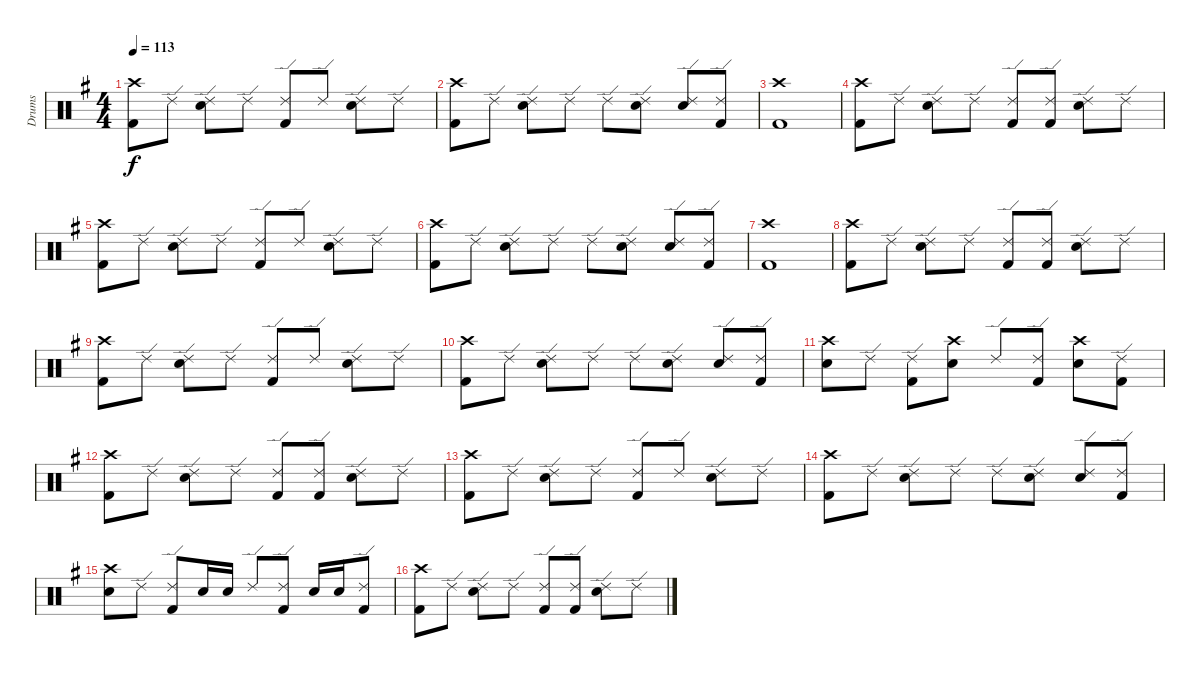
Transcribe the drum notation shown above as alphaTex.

\track ("Drums" "Drums") {instrument percussion}
\staff {score}
\articulation defaults
\ts (4 4)
\tempo 113
\clef neutral
\ks g
("Crash high (hit)" "Kick (hit) 2").8{dy f} "Ride (edge) 2".8 ("Ride (edge) 2" "Electric Snare (hit)").8 "Ride (edge) 2".8 ("Ride (edge) 2" "Kick (hit) 2").8 "Ride (edge) 2".8 ("Ride (edge) 2" "Electric Snare (hit)").8 "Ride (edge) 2".8 |
("Crash high (hit)" "Kick (hit) 2").8 "Ride (edge) 2".8 ("Ride (edge) 2" "Electric Snare (hit)").8 "Ride (edge) 2".8 "Ride (edge) 2".8 ("Ride (edge) 2" "Electric Snare (hit)").8 ("Ride (edge) 2" "Electric Snare (hit)").8 ("Ride (edge) 2" "Kick (hit) 2").8 |
("Crash high (hit)" "Kick (hit) 2").1 |
("Crash high (hit)" "Kick (hit) 2").8 "Ride (edge) 2".8 ("Ride (edge) 2" "Electric Snare (hit)").8 "Ride (edge) 2".8 ("Ride (edge) 2" "Kick (hit) 2").8 ("Ride (edge) 2" "Kick (hit) 2").8 ("Ride (edge) 2" "Electric Snare (hit)").8 "Ride (edge) 2".8 |
("Crash high (hit)" "Kick (hit) 2").8 "Ride (edge) 2".8 ("Ride (edge) 2" "Electric Snare (hit)").8 "Ride (edge) 2".8 ("Ride (edge) 2" "Kick (hit) 2").8 "Ride (edge) 2".8 ("Ride (edge) 2" "Electric Snare (hit)").8 "Ride (edge) 2".8 |
("Crash high (hit)" "Kick (hit) 2").8 "Ride (edge) 2".8 ("Ride (edge) 2" "Electric Snare (hit)").8 "Ride (edge) 2".8 "Ride (edge) 2".8 ("Ride (edge) 2" "Electric Snare (hit)").8 ("Ride (edge) 2" "Electric Snare (hit)").8 ("Ride (edge) 2" "Kick (hit) 2").8 |
("Crash high (hit)" "Kick (hit) 2").1 |
("Crash high (hit)" "Kick (hit) 2").8 "Ride (edge) 2".8 ("Ride (edge) 2" "Electric Snare (hit)").8 "Ride (edge) 2".8 ("Ride (edge) 2" "Kick (hit) 2").8 ("Ride (edge) 2" "Kick (hit) 2").8 ("Ride (edge) 2" "Electric Snare (hit)").8 "Ride (edge) 2".8 |
("Crash high (hit)" "Kick (hit) 2").8 "Ride (edge) 2".8 ("Ride (edge) 2" "Electric Snare (hit)").8 "Ride (edge) 2".8 ("Ride (edge) 2" "Kick (hit) 2").8 "Ride (edge) 2".8 ("Ride (edge) 2" "Electric Snare (hit)").8 "Ride (edge) 2".8 |
("Crash high (hit)" "Kick (hit) 2").8 "Ride (edge) 2".8 ("Ride (edge) 2" "Electric Snare (hit)").8 "Ride (edge) 2".8 "Ride (edge) 2".8 ("Ride (edge) 2" "Electric Snare (hit)").8 ("Ride (edge) 2" "Electric Snare (hit)").8 ("Ride (edge) 2" "Kick (hit) 2").8 |
("Crash high (hit)" "Electric Snare (hit)").8 "Ride (edge) 2".8 ("Ride (edge) 2" "Kick (hit) 2").8 ("Crash high (hit)" "Electric Snare (hit)").8 "Ride (edge) 2".8 ("Ride (edge) 2" "Kick (hit) 2").8 ("Crash high (hit)" "Electric Snare (hit)").8 ("Ride (edge) 2" "Kick (hit) 2").8 |
("Crash high (hit)" "Kick (hit) 2").8 "Ride (edge) 2".8 ("Ride (edge) 2" "Electric Snare (hit)").8 "Ride (edge) 2".8 ("Ride (edge) 2" "Kick (hit) 2").8 ("Ride (edge) 2" "Kick (hit) 2").8 ("Ride (edge) 2" "Electric Snare (hit)").8 "Ride (edge) 2".8 |
("Crash high (hit)" "Kick (hit) 2").8 "Ride (edge) 2".8 ("Ride (edge) 2" "Electric Snare (hit)").8 "Ride (edge) 2".8 ("Ride (edge) 2" "Kick (hit) 2").8 "Ride (edge) 2".8 ("Ride (edge) 2" "Electric Snare (hit)").8 "Ride (edge) 2".8 |
("Crash high (hit)" "Kick (hit) 2").8 "Ride (edge) 2".8 ("Ride (edge) 2" "Electric Snare (hit)").8 "Ride (edge) 2".8 "Ride (edge) 2".8 ("Ride (edge) 2" "Electric Snare (hit)").8 ("Ride (edge) 2" "Electric Snare (hit)").8 ("Ride (edge) 2" "Kick (hit) 2").8 |
("Crash high (hit)" "Electric Snare (hit)").8 "Ride (edge) 2".8 ("Ride (edge) 2" "Kick (hit) 2").8 "Electric Snare (hit)".16 "Electric Snare (hit)".16 "Ride (edge) 2".8 ("Ride (edge) 2" "Kick (hit) 2").8 "Electric Snare (hit)".16 "Electric Snare (hit)".16 ("Ride (edge) 2" "Kick (hit) 2").8 |
("Crash high (hit)" "Kick (hit) 2").8 "Ride (edge) 2".8 ("Ride (edge) 2" "Electric Snare (hit)").8 "Ride (edge) 2".8 ("Ride (edge) 2" "Kick (hit) 2").8 ("Ride (edge) 2" "Kick (hit) 2").8 ("Ride (edge) 2" "Electric Snare (hit)").8 "Ride (edge) 2".8
